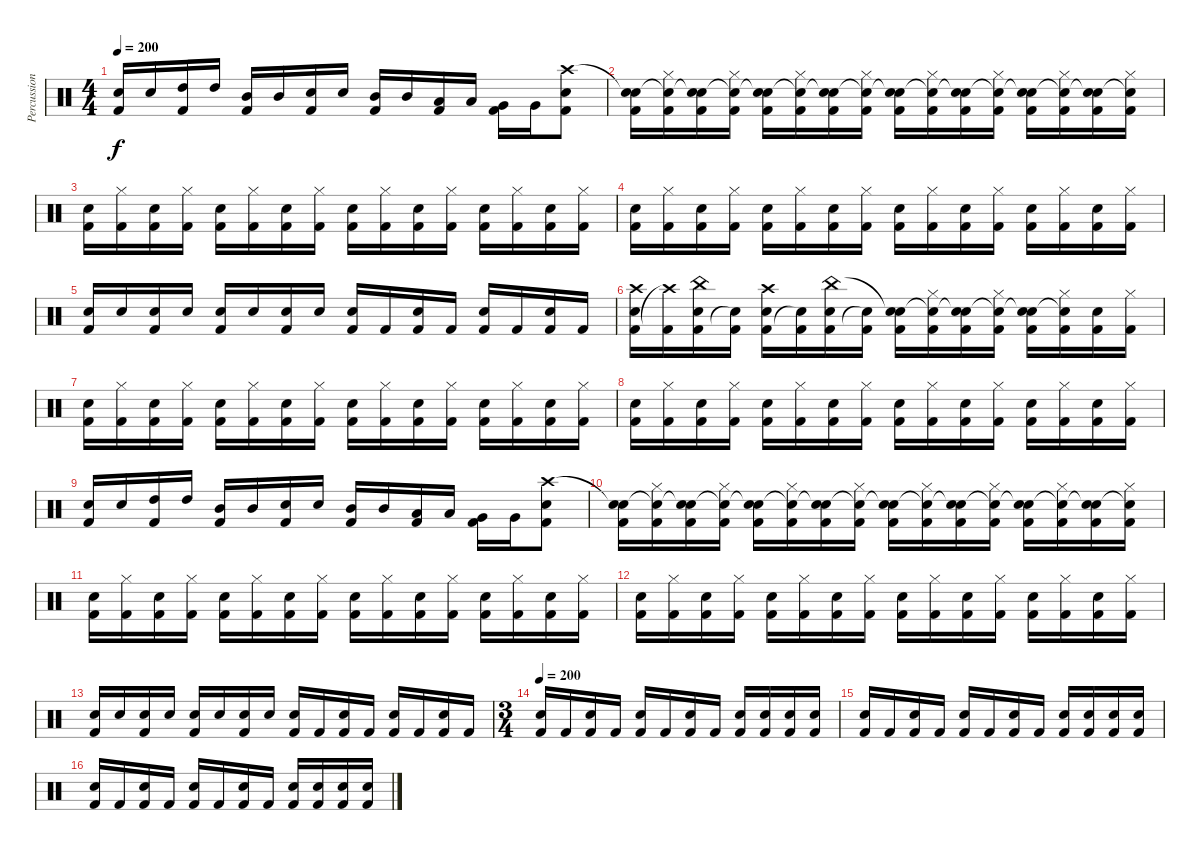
\track ("Percussion" "Percussion") {instrument percussion}
\staff {score}
\articulation defaults
\ts (4 4)
\tempo 200
\clef neutral
\ks c
("Snare (hit) 2" "Kick (hit) 2").16{dy f} "Snare (hit) 2".16 ("High Tom (hit)" "Kick (hit) 2").16 "High Tom (hit)".16 ("Mid Tom (hit)" "Kick (hit) 2").16 "Mid Tom (hit)".16 ("Snare (hit) 2" "Kick (hit) 2").16 "Snare (hit) 2".16 ("Mid Tom (hit)" "Kick (hit) 2").16 "Mid Tom (hit)".16 ("Low Tom (hit)" "Kick (hit) 2").16 "Low Tom (hit)".16 ("Very Low Tom (hit)" "Kick (hit) 2").16 "Very Low Tom (hit)".16 ("Snare (hit) 2" "Kick (hit) 2" "Crash high (hit)").8 |
("Snare (hit) 2" "Kick (hit) 2" "Snare (hit)"{t}).16 ("Hi-Hat (closed)" "Kick (hit) 2" "Snare (hit)"{t}).16 ("Snare (hit) 2" "Kick (hit) 2" "Snare (hit)"{t}).16 ("Hi-Hat (closed)" "Kick (hit) 2" "Snare (hit)"{t}).16 ("Snare (hit) 2" "Kick (hit) 2" "Snare (hit)"{t}).16 ("Hi-Hat (closed)" "Kick (hit) 2" "Snare (hit)"{t}).16 ("Snare (hit) 2" "Kick (hit) 2" "Snare (hit)"{t}).16 ("Hi-Hat (closed)" "Kick (hit) 2" "Snare (hit)"{t}).16 ("Snare (hit) 2" "Kick (hit) 2" "Snare (hit)"{t}).16 ("Hi-Hat (closed)" "Kick (hit) 2" "Snare (hit)"{t}).16 ("Snare (hit) 2" "Kick (hit) 2" "Snare (hit)"{t}).16 ("Hi-Hat (closed)" "Kick (hit) 2" "Snare (hit)"{t}).16 ("Snare (hit) 2" "Kick (hit) 2" "Snare (hit)"{t}).16 ("Hi-Hat (closed)" "Kick (hit) 2" "Snare (hit)"{t}).16 ("Snare (hit) 2" "Kick (hit) 2" "Snare (hit)"{t}).16 ("Hi-Hat (closed)" "Kick (hit) 2" "Snare (hit)"{t}).16 |
("Snare (hit) 2" "Kick (hit) 2").16 ("Hi-Hat (closed)" "Kick (hit) 2").16 ("Snare (hit) 2" "Kick (hit) 2").16 ("Hi-Hat (closed)" "Kick (hit) 2").16 ("Snare (hit) 2" "Kick (hit) 2").16 ("Hi-Hat (closed)" "Kick (hit) 2").16 ("Snare (hit) 2" "Kick (hit) 2").16 ("Hi-Hat (closed)" "Kick (hit) 2").16 ("Snare (hit) 2" "Kick (hit) 2").16 ("Hi-Hat (closed)" "Kick (hit) 2").16 ("Snare (hit) 2" "Kick (hit) 2").16 ("Hi-Hat (closed)" "Kick (hit) 2").16 ("Snare (hit) 2" "Kick (hit) 2").16 ("Hi-Hat (closed)" "Kick (hit) 2").16 ("Snare (hit) 2" "Kick (hit) 2").16 ("Hi-Hat (closed)" "Kick (hit) 2").16 |
("Snare (hit) 2" "Kick (hit) 2").16 ("Hi-Hat (closed)" "Kick (hit) 2").16 ("Snare (hit) 2" "Kick (hit) 2").16 ("Hi-Hat (closed)" "Kick (hit) 2").16 ("Snare (hit) 2" "Kick (hit) 2").16 ("Hi-Hat (closed)" "Kick (hit) 2").16 ("Snare (hit) 2" "Kick (hit) 2").16 ("Hi-Hat (closed)" "Kick (hit) 2").16 ("Snare (hit) 2" "Kick (hit) 2").16 ("Hi-Hat (closed)" "Kick (hit) 2").16 ("Snare (hit) 2" "Kick (hit) 2").16 ("Hi-Hat (closed)" "Kick (hit) 2").16 ("Snare (hit) 2" "Kick (hit) 2").16 ("Hi-Hat (closed)" "Kick (hit) 2").16 ("Snare (hit) 2" "Kick (hit) 2").16 ("Hi-Hat (closed)" "Kick (hit) 2").16 |
("Snare (hit) 2" "Kick (hit) 2").16 "Snare (hit) 2".16 ("Snare (hit) 2" "Kick (hit) 2").16 "Snare (hit) 2".16 ("Snare (hit) 2" "Kick (hit) 2").16 "Snare (hit) 2".16 ("Snare (hit) 2" "Kick (hit) 2").16 "Snare (hit) 2".16 ("Snare (hit) 2" "Kick (hit) 2").16 "Kick (hit) 2".16 ("Snare (hit) 2" "Kick (hit) 2").16 "Kick (hit) 2".16 ("Snare (hit) 2" "Kick (hit) 2").16 "Kick (hit) 2".16 ("Snare (hit) 2" "Kick (hit) 2").16 "Kick (hit) 2".16 |
("Snare (hit) 2" "Kick (hit) 2" "Crash high (hit)").16 ("Kick (hit) 2" "Crash high (hit)"{t}).16 ("Snare (hit) 2" "Kick (hit) 2" "China (hit)").16 ("Kick (hit) 2" "Snare (hit)"{t}).16 ("Snare (hit) 2" "Kick (hit) 2" "Crash high (hit)").16 ("Kick (hit) 2" "Snare (hit)"{t}).16 ("Snare (hit) 2" "Kick (hit) 2" "China (hit)").16 ("Kick (hit) 2" "Snare (hit)"{t}).16 ("Snare (hit) 2" "Kick (hit) 2" "Snare (hit)"{t}).16 ("Hi-Hat (closed)" "Kick (hit) 2" "Snare (hit)"{t}).16 ("Snare (hit) 2" "Kick (hit) 2" "Snare (hit)"{t}).16 ("Hi-Hat (closed)" "Kick (hit) 2" "Snare (hit)"{t}).16 ("Snare (hit) 2" "Kick (hit) 2" "Snare (hit)"{t}).16 ("Hi-Hat (closed)" "Kick (hit) 2" "Snare (hit)"{t}).16 ("Snare (hit) 2" "Kick (hit) 2").16 ("Hi-Hat (closed)" "Kick (hit) 2").16 |
("Snare (hit) 2" "Kick (hit) 2").16 ("Hi-Hat (closed)" "Kick (hit) 2").16 ("Snare (hit) 2" "Kick (hit) 2").16 ("Hi-Hat (closed)" "Kick (hit) 2").16 ("Snare (hit) 2" "Kick (hit) 2").16 ("Hi-Hat (closed)" "Kick (hit) 2").16 ("Snare (hit) 2" "Kick (hit) 2").16 ("Hi-Hat (closed)" "Kick (hit) 2").16 ("Snare (hit) 2" "Kick (hit) 2").16 ("Hi-Hat (closed)" "Kick (hit) 2").16 ("Snare (hit) 2" "Kick (hit) 2").16 ("Hi-Hat (closed)" "Kick (hit) 2").16 ("Snare (hit) 2" "Kick (hit) 2").16 ("Hi-Hat (closed)" "Kick (hit) 2").16 ("Snare (hit) 2" "Kick (hit) 2").16 ("Hi-Hat (closed)" "Kick (hit) 2").16 |
("Snare (hit) 2" "Kick (hit) 2").16 ("Hi-Hat (closed)" "Kick (hit) 2").16 ("Snare (hit) 2" "Kick (hit) 2").16 ("Hi-Hat (closed)" "Kick (hit) 2").16 ("Snare (hit) 2" "Kick (hit) 2").16 ("Hi-Hat (closed)" "Kick (hit) 2").16 ("Snare (hit) 2" "Kick (hit) 2").16 ("Hi-Hat (closed)" "Kick (hit) 2").16 ("Snare (hit) 2" "Kick (hit) 2").16 ("Hi-Hat (closed)" "Kick (hit) 2").16 ("Snare (hit) 2" "Kick (hit) 2").16 ("Hi-Hat (closed)" "Kick (hit) 2").16 ("Snare (hit) 2" "Kick (hit) 2").16 ("Hi-Hat (closed)" "Kick (hit) 2").16 ("Snare (hit) 2" "Kick (hit) 2").16 ("Hi-Hat (closed)" "Kick (hit) 2").16 |
("Snare (hit) 2" "Kick (hit) 2").16 "Snare (hit) 2".16 ("High Tom (hit)" "Kick (hit) 2").16 "High Tom (hit)".16 ("Mid Tom (hit)" "Kick (hit) 2").16 "Mid Tom (hit)".16 ("Snare (hit) 2" "Kick (hit) 2").16 "Snare (hit) 2".16 ("Mid Tom (hit)" "Kick (hit) 2").16 "Mid Tom (hit)".16 ("Low Tom (hit)" "Kick (hit) 2").16 "Low Tom (hit)".16 ("Very Low Tom (hit)" "Kick (hit) 2").16 "Very Low Tom (hit)".16 ("Snare (hit) 2" "Kick (hit) 2" "Crash high (hit)").8 |
("Snare (hit) 2" "Kick (hit) 2" "Snare (hit)"{t}).16 ("Hi-Hat (closed)" "Kick (hit) 2" "Snare (hit)"{t}).16 ("Snare (hit) 2" "Kick (hit) 2" "Snare (hit)"{t}).16 ("Hi-Hat (closed)" "Kick (hit) 2" "Snare (hit)"{t}).16 ("Snare (hit) 2" "Kick (hit) 2" "Snare (hit)"{t}).16 ("Hi-Hat (closed)" "Kick (hit) 2" "Snare (hit)"{t}).16 ("Snare (hit) 2" "Kick (hit) 2" "Snare (hit)"{t}).16 ("Hi-Hat (closed)" "Kick (hit) 2" "Snare (hit)"{t}).16 ("Snare (hit) 2" "Kick (hit) 2" "Snare (hit)"{t}).16 ("Hi-Hat (closed)" "Kick (hit) 2" "Snare (hit)"{t}).16 ("Snare (hit) 2" "Kick (hit) 2" "Snare (hit)"{t}).16 ("Hi-Hat (closed)" "Kick (hit) 2" "Snare (hit)"{t}).16 ("Snare (hit) 2" "Kick (hit) 2" "Snare (hit)"{t}).16 ("Hi-Hat (closed)" "Kick (hit) 2" "Snare (hit)"{t}).16 ("Snare (hit) 2" "Kick (hit) 2" "Snare (hit)"{t}).16 ("Hi-Hat (closed)" "Kick (hit) 2" "Snare (hit)"{t}).16 |
("Snare (hit) 2" "Kick (hit) 2").16 ("Hi-Hat (closed)" "Kick (hit) 2").16 ("Snare (hit) 2" "Kick (hit) 2").16 ("Hi-Hat (closed)" "Kick (hit) 2").16 ("Snare (hit) 2" "Kick (hit) 2").16 ("Hi-Hat (closed)" "Kick (hit) 2").16 ("Snare (hit) 2" "Kick (hit) 2").16 ("Hi-Hat (closed)" "Kick (hit) 2").16 ("Snare (hit) 2" "Kick (hit) 2").16 ("Hi-Hat (closed)" "Kick (hit) 2").16 ("Snare (hit) 2" "Kick (hit) 2").16 ("Hi-Hat (closed)" "Kick (hit) 2").16 ("Snare (hit) 2" "Kick (hit) 2").16 ("Hi-Hat (closed)" "Kick (hit) 2").16 ("Snare (hit) 2" "Kick (hit) 2").16 ("Hi-Hat (closed)" "Kick (hit) 2").16 |
("Snare (hit) 2" "Kick (hit) 2").16 ("Hi-Hat (closed)" "Kick (hit) 2").16 ("Snare (hit) 2" "Kick (hit) 2").16 ("Hi-Hat (closed)" "Kick (hit) 2").16 ("Snare (hit) 2" "Kick (hit) 2").16 ("Hi-Hat (closed)" "Kick (hit) 2").16 ("Snare (hit) 2" "Kick (hit) 2").16 ("Hi-Hat (closed)" "Kick (hit) 2").16 ("Snare (hit) 2" "Kick (hit) 2").16 ("Hi-Hat (closed)" "Kick (hit) 2").16 ("Snare (hit) 2" "Kick (hit) 2").16 ("Hi-Hat (closed)" "Kick (hit) 2").16 ("Snare (hit) 2" "Kick (hit) 2").16 ("Hi-Hat (closed)" "Kick (hit) 2").16 ("Snare (hit) 2" "Kick (hit) 2").16 ("Hi-Hat (closed)" "Kick (hit) 2").16 |
("Snare (hit) 2" "Kick (hit) 2").16 "Snare (hit) 2".16 ("Snare (hit) 2" "Kick (hit) 2").16 "Snare (hit) 2".16 ("Snare (hit) 2" "Kick (hit) 2").16 "Snare (hit) 2".16 ("Snare (hit) 2" "Kick (hit) 2").16 "Snare (hit) 2".16 ("Snare (hit) 2" "Kick (hit) 2").16 "Kick (hit) 2".16 ("Snare (hit) 2" "Kick (hit) 2").16 "Kick (hit) 2".16 ("Snare (hit) 2" "Kick (hit) 2").16 "Kick (hit) 2".16 ("Snare (hit) 2" "Kick (hit) 2").16 "Kick (hit) 2".16 |
\ts (3 4)
\tempo 200
("Snare (hit) 2" "Kick (hit) 2").16 "Kick (hit) 2".16 ("Snare (hit) 2" "Kick (hit) 2").16 "Kick (hit) 2".16 ("Snare (hit) 2" "Kick (hit) 2").16 "Kick (hit) 2".16 ("Snare (hit) 2" "Kick (hit) 2").16 "Kick (hit) 2".16 ("Snare (hit) 2" "Kick (hit) 2").16 ("Snare (hit) 2" "Kick (hit) 2").16 ("Snare (hit) 2" "Kick (hit) 2").16 ("Snare (hit) 2" "Kick (hit) 2").16 |
("Snare (hit) 2" "Kick (hit) 2").16 "Kick (hit) 2".16 ("Snare (hit) 2" "Kick (hit) 2").16 "Kick (hit) 2".16 ("Snare (hit) 2" "Kick (hit) 2").16 "Kick (hit) 2".16 ("Snare (hit) 2" "Kick (hit) 2").16 "Kick (hit) 2".16 ("Snare (hit) 2" "Kick (hit) 2").16 ("Snare (hit) 2" "Kick (hit) 2").16 ("Snare (hit) 2" "Kick (hit) 2").16 ("Snare (hit) 2" "Kick (hit) 2").16 |
("Snare (hit) 2" "Kick (hit) 2").16 "Kick (hit) 2".16 ("Snare (hit) 2" "Kick (hit) 2").16 "Kick (hit) 2".16 ("Snare (hit) 2" "Kick (hit) 2").16 "Kick (hit) 2".16 ("Snare (hit) 2" "Kick (hit) 2").16 "Kick (hit) 2".16 ("Snare (hit) 2" "Kick (hit) 2").16 ("Snare (hit) 2" "Kick (hit) 2").16 ("Snare (hit) 2" "Kick (hit) 2").16 ("Snare (hit) 2" "Kick (hit) 2").16
